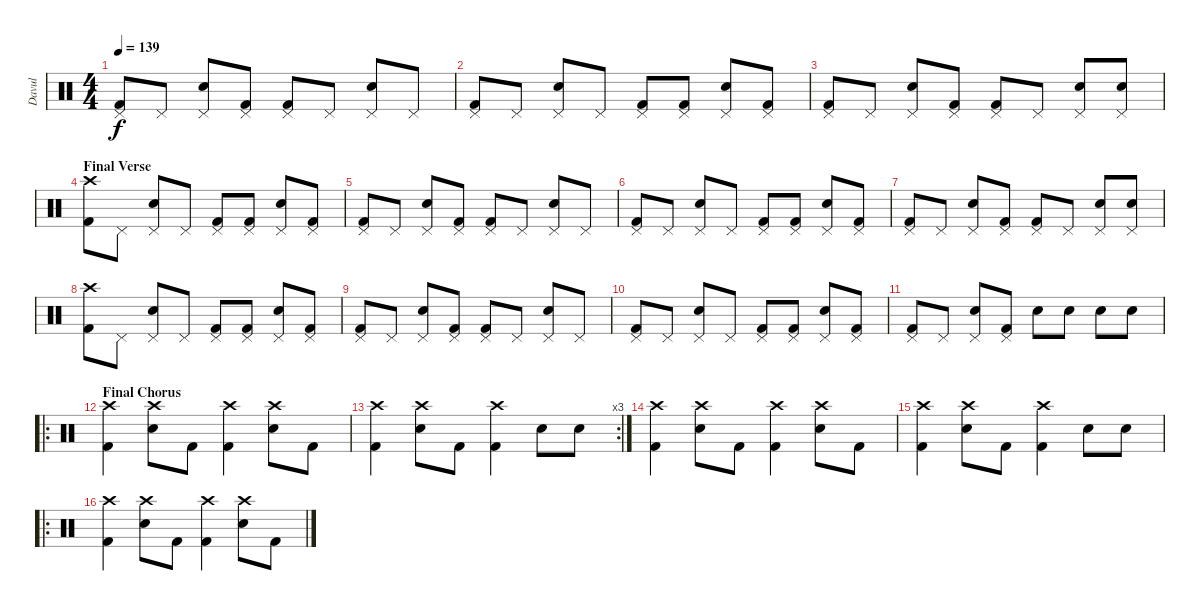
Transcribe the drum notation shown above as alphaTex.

\track ("Davul" "Davul") {instrument percussion}
\staff {score}
\articulation defaults
\ts (4 4)
\tempo 139
\clef neutral
\ks c
("Pedal Hi-Hat (hit)" "Kick (hit) 2").8{dy f} "Pedal Hi-Hat (hit)".8 ("Pedal Hi-Hat (hit)" "Snare (hit) 2").8 ("Pedal Hi-Hat (hit)" "Kick (hit) 2").8 ("Pedal Hi-Hat (hit)" "Kick (hit) 2").8 "Pedal Hi-Hat (hit)".8 ("Pedal Hi-Hat (hit)" "Snare (hit) 2").8 "Pedal Hi-Hat (hit)".8 |
("Pedal Hi-Hat (hit)" "Kick (hit) 2").8 "Pedal Hi-Hat (hit)".8 ("Pedal Hi-Hat (hit)" "Snare (hit) 2").8 "Pedal Hi-Hat (hit)".8 ("Pedal Hi-Hat (hit)" "Kick (hit) 2").8 ("Pedal Hi-Hat (hit)" "Kick (hit) 2").8 ("Pedal Hi-Hat (hit)" "Snare (hit) 2").8 ("Pedal Hi-Hat (hit)" "Kick (hit) 2").8 |
("Pedal Hi-Hat (hit)" "Kick (hit) 2").8 "Pedal Hi-Hat (hit)".8 ("Pedal Hi-Hat (hit)" "Snare (hit) 2").8 ("Pedal Hi-Hat (hit)" "Kick (hit) 2").8 ("Pedal Hi-Hat (hit)" "Kick (hit) 2").8 "Pedal Hi-Hat (hit)".8 ("Pedal Hi-Hat (hit)" "Snare (hit) 2").8 ("Pedal Hi-Hat (hit)" "Snare (hit) 2").8 |
\section ("" "Final Verse")
("Crash high (hit)" "Kick (hit) 2").8 "Pedal Hi-Hat (hit)".8 ("Pedal Hi-Hat (hit)" "Snare (hit) 2").8 "Pedal Hi-Hat (hit)".8 ("Pedal Hi-Hat (hit)" "Kick (hit) 2").8 ("Pedal Hi-Hat (hit)" "Kick (hit) 2").8 ("Pedal Hi-Hat (hit)" "Snare (hit) 2").8 ("Pedal Hi-Hat (hit)" "Kick (hit) 2").8 |
("Pedal Hi-Hat (hit)" "Kick (hit) 2").8 "Pedal Hi-Hat (hit)".8 ("Pedal Hi-Hat (hit)" "Snare (hit) 2").8 ("Pedal Hi-Hat (hit)" "Kick (hit) 2").8 ("Pedal Hi-Hat (hit)" "Kick (hit) 2").8 "Pedal Hi-Hat (hit)".8 ("Pedal Hi-Hat (hit)" "Snare (hit) 2").8 "Pedal Hi-Hat (hit)".8 |
("Pedal Hi-Hat (hit)" "Kick (hit) 2").8 "Pedal Hi-Hat (hit)".8 ("Pedal Hi-Hat (hit)" "Snare (hit) 2").8 "Pedal Hi-Hat (hit)".8 ("Pedal Hi-Hat (hit)" "Kick (hit) 2").8 ("Pedal Hi-Hat (hit)" "Kick (hit) 2").8 ("Pedal Hi-Hat (hit)" "Snare (hit) 2").8 ("Pedal Hi-Hat (hit)" "Kick (hit) 2").8 |
("Pedal Hi-Hat (hit)" "Kick (hit) 2").8 "Pedal Hi-Hat (hit)".8 ("Pedal Hi-Hat (hit)" "Snare (hit) 2").8 ("Pedal Hi-Hat (hit)" "Kick (hit) 2").8 ("Pedal Hi-Hat (hit)" "Kick (hit) 2").8 "Pedal Hi-Hat (hit)".8 ("Pedal Hi-Hat (hit)" "Snare (hit) 2").8 ("Pedal Hi-Hat (hit)" "Snare (hit) 2").8 |
("Crash high (hit)" "Kick (hit) 2").8 "Pedal Hi-Hat (hit)".8 ("Pedal Hi-Hat (hit)" "Snare (hit) 2").8 "Pedal Hi-Hat (hit)".8 ("Pedal Hi-Hat (hit)" "Kick (hit) 2").8 ("Pedal Hi-Hat (hit)" "Kick (hit) 2").8 ("Pedal Hi-Hat (hit)" "Snare (hit) 2").8 ("Pedal Hi-Hat (hit)" "Kick (hit) 2").8 |
("Pedal Hi-Hat (hit)" "Kick (hit) 2").8 "Pedal Hi-Hat (hit)".8 ("Pedal Hi-Hat (hit)" "Snare (hit) 2").8 ("Pedal Hi-Hat (hit)" "Kick (hit) 2").8 ("Pedal Hi-Hat (hit)" "Kick (hit) 2").8 "Pedal Hi-Hat (hit)".8 ("Pedal Hi-Hat (hit)" "Snare (hit) 2").8 "Pedal Hi-Hat (hit)".8 |
("Pedal Hi-Hat (hit)" "Kick (hit) 2").8 "Pedal Hi-Hat (hit)".8 ("Pedal Hi-Hat (hit)" "Snare (hit) 2").8 "Pedal Hi-Hat (hit)".8 ("Pedal Hi-Hat (hit)" "Kick (hit) 2").8 ("Pedal Hi-Hat (hit)" "Kick (hit) 2").8 ("Pedal Hi-Hat (hit)" "Snare (hit) 2").8 ("Pedal Hi-Hat (hit)" "Kick (hit) 2").8 |
("Pedal Hi-Hat (hit)" "Kick (hit) 2").8 "Pedal Hi-Hat (hit)".8 ("Pedal Hi-Hat (hit)" "Snare (hit) 2").8 ("Pedal Hi-Hat (hit)" "Kick (hit) 2").8 "Snare (hit) 2".8 "Snare (hit) 2".8 "Snare (hit) 2".8 "Snare (hit) 2".8 |
\ro
\section ("" "Final Chorus")
("Crash high (hit)" "Kick (hit) 2").4 ("Crash high (hit)" "Snare (hit) 2").8 "Kick (hit) 2".8 ("Crash high (hit)" "Kick (hit) 2").4 ("Crash high (hit)" "Snare (hit) 2").8 "Kick (hit) 2".8 |
\rc 3
("Crash high (hit)" "Kick (hit) 2").4 ("Crash high (hit)" "Snare (hit) 2").8 "Kick (hit) 2".8 ("Crash high (hit)" "Kick (hit) 2").4 "Snare (hit) 2".8 "Snare (hit) 2".8 |
("Crash high (hit)" "Kick (hit) 2").4 ("Crash high (hit)" "Snare (hit) 2").8 "Kick (hit) 2".8 ("Crash high (hit)" "Kick (hit) 2").4 ("Crash high (hit)" "Snare (hit) 2").8 "Kick (hit) 2".8 |
("Crash high (hit)" "Kick (hit) 2").4 ("Crash high (hit)" "Snare (hit) 2").8 "Kick (hit) 2".8 ("Crash high (hit)" "Kick (hit) 2").4 "Snare (hit) 2".8 "Snare (hit) 2".8 |
\ro
("Crash high (hit)" "Kick (hit) 2").4 ("Crash high (hit)" "Snare (hit) 2").8 "Kick (hit) 2".8 ("Crash high (hit)" "Kick (hit) 2").4 ("Crash high (hit)" "Snare (hit) 2").8 "Kick (hit) 2".8
